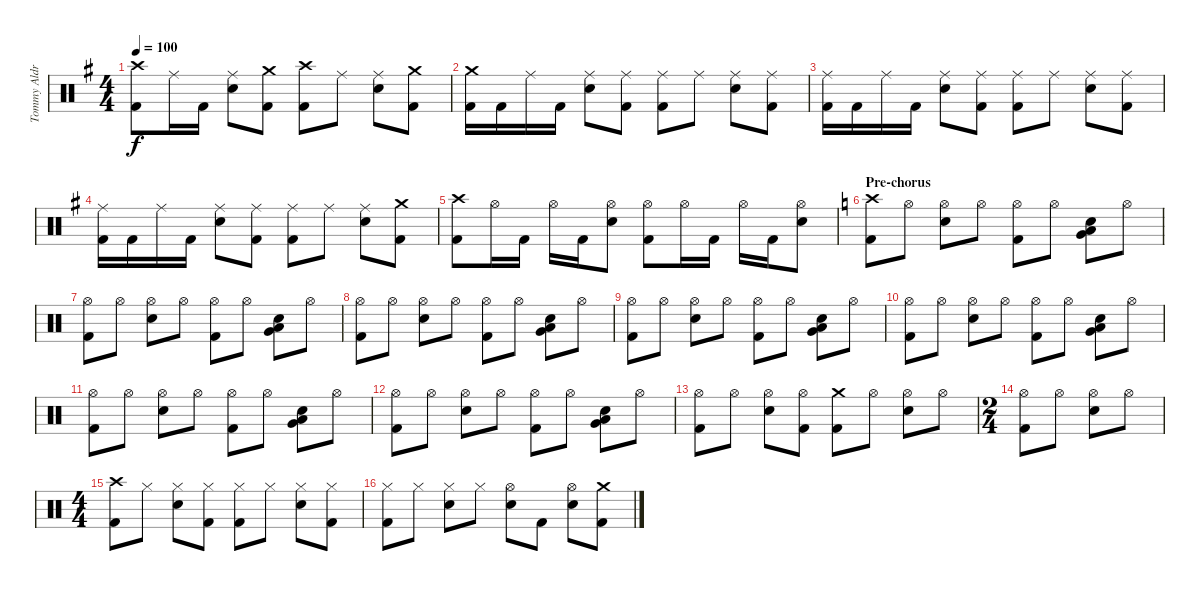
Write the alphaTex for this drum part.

\track ("Tommy Aldridge" "Tommy Aldr") {instrument percussion}
\staff {score}
\articulation defaults
\ts (4 4)
\tempo 100
\clef neutral
\ks eminor
("Crash high (hit)" "Kick (hit) 2").8{dy f} "Ride (middle)".16 "Kick (hit) 2".16 ("Ride (middle)" "Electric Snare (hit)").8 ("Crash medium (hit)" "Kick (hit) 2").8 ("Crash high (hit)" "Kick (hit) 2").8 "Ride (middle)".8 ("Ride (middle)" "Electric Snare (hit)").8 ("Crash medium (hit)" "Kick (hit) 2").8 |
("Crash medium (hit)" "Kick (hit) 2").16 "Kick (hit) 2".16 "Ride (middle)".16 "Kick (hit) 2".16 ("Ride (middle)" "Electric Snare (hit)").8 ("Ride (middle)" "Kick (hit) 2").8 ("Ride (middle)" "Kick (hit) 2").8 "Ride (middle)".8 ("Ride (middle)" "Electric Snare (hit)").8 ("Ride (middle)" "Kick (hit) 2").8 |
("Ride (middle)" "Kick (hit) 2").16 "Kick (hit) 2".16 "Ride (middle)".16 "Kick (hit) 2".16 ("Ride (middle)" "Electric Snare (hit)").8 ("Ride (middle)" "Kick (hit) 2").8 ("Ride (middle)" "Kick (hit) 2").8 "Ride (middle)".8 ("Ride (middle)" "Electric Snare (hit)").8 ("Ride (middle)" "Kick (hit) 2").8 |
("Ride (middle)" "Kick (hit) 2").16 "Kick (hit) 2".16 "Ride (middle)".16 "Kick (hit) 2".16 ("Ride (middle)" "Electric Snare (hit)").8 ("Ride (middle)" "Kick (hit) 2").8 ("Ride (middle)" "Kick (hit) 2").8 "Ride (middle)".8 ("Ride (middle)" "Electric Snare (hit)").8 ("Crash medium (hit)" "Kick (hit) 2").8 |
("Crash high (hit)" "Kick (hit) 2").8 "Hi-Hat (open)".16 "Kick (hit) 2".16 "Hi-Hat (open)".16 "Kick (hit) 2".16 ("Hi-Hat (open)" "Electric Snare (hit)").8 ("Hi-Hat (open)" "Kick (hit) 2").8 "Hi-Hat (open)".16 "Kick (hit) 2".16 "Hi-Hat (open)".16 "Kick (hit) 2".16 ("Hi-Hat (open)" "Electric Snare (hit)").8 |
\section ("" "Pre-chorus")
\ks aminor
("Crash high (hit)" "Kick (hit) 2").8 "Hi-Hat (open)".8 ("Hi-Hat (open)" "Electric Snare (hit)").8 "Hi-Hat (open)".8 ("Hi-Hat (open)" "Kick (hit) 2").8 "Hi-Hat (open)".8 ("Very Low Tom (hit)" "Low Floor Tom (hit)" "Electric Snare (hit)").8 "Hi-Hat (open)".8 |
("Hi-Hat (open)" "Kick (hit) 2").8 "Hi-Hat (open)".8 ("Hi-Hat (open)" "Electric Snare (hit)").8 "Hi-Hat (open)".8 ("Hi-Hat (open)" "Kick (hit) 2").8 "Hi-Hat (open)".8 ("Very Low Tom (hit)" "Low Floor Tom (hit)" "Electric Snare (hit)").8 "Hi-Hat (open)".8 |
("Hi-Hat (open)" "Kick (hit) 2").8 "Hi-Hat (open)".8 ("Hi-Hat (open)" "Electric Snare (hit)").8 "Hi-Hat (open)".8 ("Hi-Hat (open)" "Kick (hit) 2").8 "Hi-Hat (open)".8 ("Very Low Tom (hit)" "Low Floor Tom (hit)" "Electric Snare (hit)").8 "Hi-Hat (open)".8 |
("Hi-Hat (open)" "Kick (hit) 2").8 "Hi-Hat (open)".8 ("Hi-Hat (open)" "Electric Snare (hit)").8 "Hi-Hat (open)".8 ("Hi-Hat (open)" "Kick (hit) 2").8 "Hi-Hat (open)".8 ("Very Low Tom (hit)" "Low Floor Tom (hit)" "Electric Snare (hit)").8 "Hi-Hat (open)".8 |
("Hi-Hat (open)" "Kick (hit) 2").8 "Hi-Hat (open)".8 ("Hi-Hat (open)" "Electric Snare (hit)").8 "Hi-Hat (open)".8 ("Hi-Hat (open)" "Kick (hit) 2").8 "Hi-Hat (open)".8 ("Very Low Tom (hit)" "Low Floor Tom (hit)" "Electric Snare (hit)").8 "Hi-Hat (open)".8 |
("Hi-Hat (open)" "Kick (hit) 2").8 "Hi-Hat (open)".8 ("Hi-Hat (open)" "Electric Snare (hit)").8 "Hi-Hat (open)".8 ("Hi-Hat (open)" "Kick (hit) 2").8 "Hi-Hat (open)".8 ("Very Low Tom (hit)" "Low Floor Tom (hit)" "Electric Snare (hit)").8 "Hi-Hat (open)".8 |
("Hi-Hat (open)" "Kick (hit) 2").8 "Hi-Hat (open)".8 ("Hi-Hat (open)" "Electric Snare (hit)").8 "Hi-Hat (open)".8 ("Hi-Hat (open)" "Kick (hit) 2").8 "Hi-Hat (open)".8 ("Very Low Tom (hit)" "Low Floor Tom (hit)" "Electric Snare (hit)").8 "Hi-Hat (open)".8 |
("Hi-Hat (open)" "Kick (hit) 2").8 "Hi-Hat (open)".8 ("Hi-Hat (open)" "Electric Snare (hit)").8 ("Hi-Hat (open)" "Kick (hit) 2").8 ("Crash medium (hit)" "Kick (hit) 2").8 "Hi-Hat (open)".8 ("Hi-Hat (open)" "Electric Snare (hit)").8 "Hi-Hat (open)".8 |
\ts (2 4)
("Hi-Hat (open)" "Kick (hit) 2").8 "Hi-Hat (open)".8 ("Hi-Hat (open)" "Electric Snare (hit)").8 "Hi-Hat (open)".8 |
\ts (4 4)
("Crash high (hit)" "Kick (hit) 2").8 "Hi-Hat (closed)".8 ("Hi-Hat (closed)" "Electric Snare (hit)").8 ("Hi-Hat (closed)" "Kick (hit) 2").8 ("Hi-Hat (closed)" "Kick (hit) 2").8 "Hi-Hat (closed)".8 ("Hi-Hat (closed)" "Electric Snare (hit)").8 ("Hi-Hat (closed)" "Kick (hit) 2").8 |
("Hi-Hat (closed)" "Kick (hit) 2").8 "Hi-Hat (closed)".8 ("Hi-Hat (closed)" "Electric Snare (hit)").8 "Hi-Hat (closed)".8 ("Hi-Hat (open)" "Electric Snare (hit)").8 "Kick (hit) 2".8 ("Hi-Hat (open)" "Electric Snare (hit)").8 ("Crash medium (hit)" "Kick (hit) 2").8
